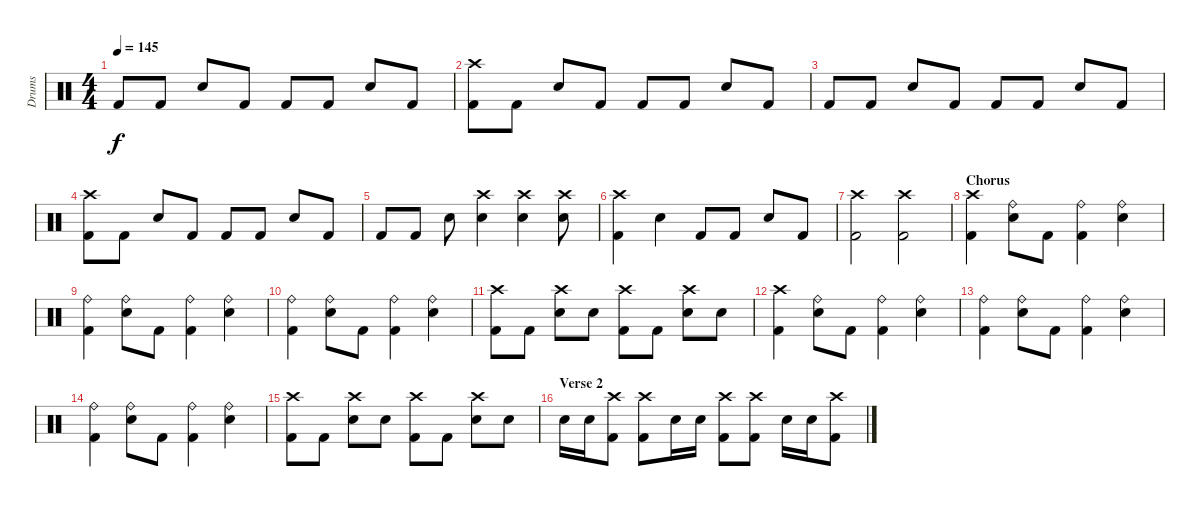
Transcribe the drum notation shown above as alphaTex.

\track ("Drums" "Drums") {instrument percussion}
\staff {score}
\articulation defaults
\ts (4 4)
\tempo 145
\clef neutral
\ks c "Kick (hit) 2".8{dy f} "Kick (hit) 2".8 "Snare (hit) 2".8 "Kick (hit) 2".8 "Kick (hit) 2".8 "Kick (hit) 2".8 "Snare (hit) 2".8 "Kick (hit) 2".8
|
("Crash high (hit)" "Kick (hit) 2").8 "Kick (hit) 2".8 "Snare (hit) 2".8 "Kick (hit) 2".8 "Kick (hit) 2".8 "Kick (hit) 2".8 "Snare (hit) 2".8 "Kick (hit) 2".8 |
"Kick (hit) 2".8 "Kick (hit) 2".8 "Snare (hit) 2".8 "Kick (hit) 2".8 "Kick (hit) 2".8 "Kick (hit) 2".8 "Snare (hit) 2".8 "Kick (hit) 2".8 |
("Crash high (hit)" "Kick (hit) 2").8 "Kick (hit) 2".8 "Snare (hit) 2".8 "Kick (hit) 2".8 "Kick (hit) 2".8 "Kick (hit) 2".8 "Snare (hit) 2".8 "Kick (hit) 2".8 |
"Kick (hit) 2".8 "Kick (hit) 2".8 "Snare (hit) 2".8 ("Crash high (hit)" "Snare (hit) 2").4 ("Crash high (hit)" "Snare (hit) 2").4 ("Crash high (hit)" "Snare (hit) 2").8 |
("Crash high (hit)" "Kick (hit) 2").4 "Snare (hit) 2".4 "Kick (hit) 2".8 "Kick (hit) 2".8 "Snare (hit) 2".8 "Kick (hit) 2".8 |
("Crash high (hit)" "Kick (hit) 2").2 ("Crash high (hit)" "Kick (hit) 2").2 |
\section ("" "Chorus")
("Crash high (hit)" "Kick (hit) 2").4 ("Ride (bell)" "Snare (hit) 2").8 "Kick (hit) 2".8 ("Ride (bell)" "Kick (hit) 2").4 ("Ride (bell)" "Snare (hit) 2").4 |
("Ride (bell)" "Kick (hit) 2").4 ("Ride (bell)" "Snare (hit) 2").8 "Kick (hit) 2".8 ("Ride (bell)" "Kick (hit) 2").4 ("Ride (bell)" "Snare (hit) 2").4 |
("Ride (bell)" "Kick (hit) 2").4 ("Ride (bell)" "Snare (hit) 2").8 "Kick (hit) 2".8 ("Ride (bell)" "Kick (hit) 2").4 ("Ride (bell)" "Snare (hit) 2").4 |
("Crash high (hit)" "Kick (hit) 2").8 "Kick (hit) 2".8 ("Crash high (hit)" "Snare (hit) 2").8 "Snare (hit) 2".8 ("Crash high (hit)" "Kick (hit) 2").8 "Kick (hit) 2".8 ("Crash high (hit)" "Snare (hit) 2").8 "Snare (hit) 2".8 |
("Crash high (hit)" "Kick (hit) 2").4 ("Ride (bell)" "Snare (hit) 2").8 "Kick (hit) 2".8 ("Ride (bell)" "Kick (hit) 2").4 ("Ride (bell)" "Snare (hit) 2").4 |
("Ride (bell)" "Kick (hit) 2").4 ("Ride (bell)" "Snare (hit) 2").8 "Kick (hit) 2".8 ("Ride (bell)" "Kick (hit) 2").4 ("Ride (bell)" "Snare (hit) 2").4 |
("Ride (bell)" "Kick (hit) 2").4 ("Ride (bell)" "Snare (hit) 2").8 "Kick (hit) 2".8 ("Ride (bell)" "Kick (hit) 2").4 ("Ride (bell)" "Snare (hit) 2").4 |
("Crash high (hit)" "Kick (hit) 2").8 "Kick (hit) 2".8 ("Crash high (hit)" "Snare (hit) 2").8 "Snare (hit) 2".8 ("Crash high (hit)" "Kick (hit) 2").8 "Kick (hit) 2".8 ("Crash high (hit)" "Snare (hit) 2").8 "Snare (hit) 2".8 |
\section ("" "Verse 2")
"Snare (hit) 2".16 "Snare (hit) 2".16 ("Crash high (hit)" "Kick (hit) 2").8 ("Crash high (hit)" "Kick (hit) 2").8 "Snare (hit) 2".16 "Snare (hit) 2".16 ("Crash high (hit)" "Kick (hit) 2").8 ("Crash high (hit)" "Kick (hit) 2").8 "Snare (hit) 2".16 "Snare (hit) 2".16 ("Crash high (hit)" "Kick (hit) 2").8
